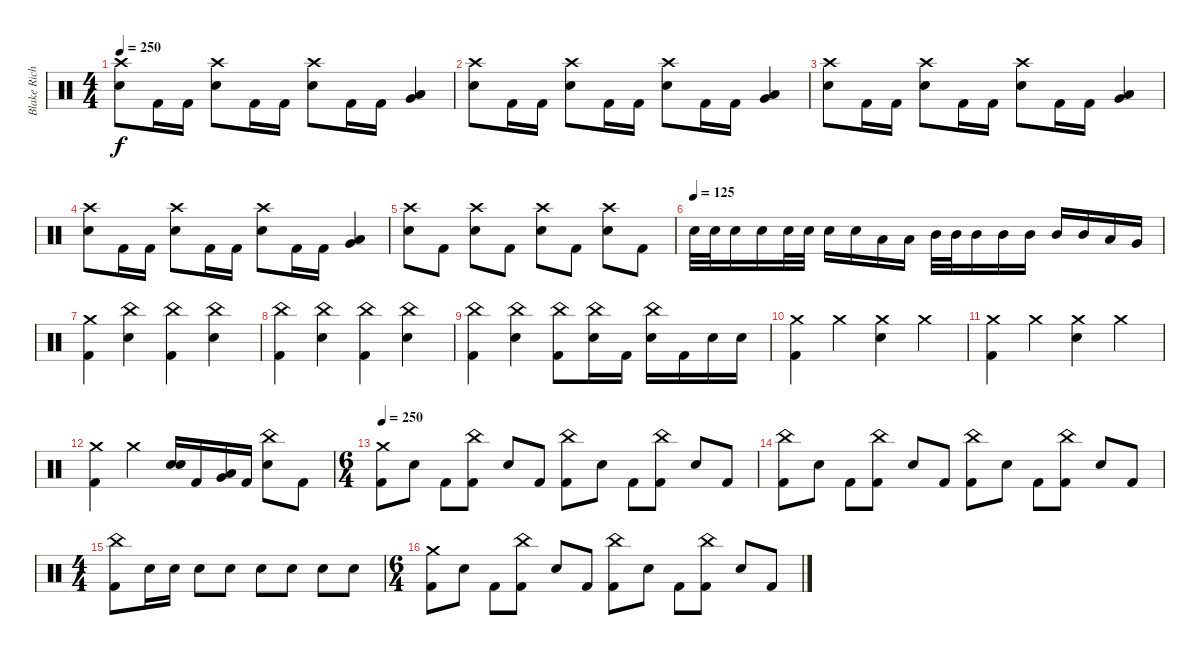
\track ("Blake Richardson - Drums" "Blake Rich") {instrument percussion}
\staff {score}
\articulation defaults
\ts (4 4)
\tempo 250
\clef neutral
\ks c
("Crash high (hit)" "Electric Snare (hit)").8{dy f} "Kick (hit) 2".16 "Kick (hit) 2".16 ("Crash high (hit)" "Electric Snare (hit)").8 "Kick (hit) 2".16 "Kick (hit) 2".16 ("Crash high (hit)" "Electric Snare (hit)").8 "Kick (hit) 2".16 "Kick (hit) 2".16 ("Low Tom (hit)" "Very Low Tom (hit)").4 |
("Crash high (hit)" "Electric Snare (hit)").8 "Kick (hit) 2".16 "Kick (hit) 2".16 ("Crash high (hit)" "Electric Snare (hit)").8 "Kick (hit) 2".16 "Kick (hit) 2".16 ("Crash high (hit)" "Electric Snare (hit)").8 "Kick (hit) 2".16 "Kick (hit) 2".16 ("Low Tom (hit)" "Very Low Tom (hit)").4 |
("Crash high (hit)" "Electric Snare (hit)").8 "Kick (hit) 2".16 "Kick (hit) 2".16 ("Crash high (hit)" "Electric Snare (hit)").8 "Kick (hit) 2".16 "Kick (hit) 2".16 ("Crash high (hit)" "Electric Snare (hit)").8 "Kick (hit) 2".16 "Kick (hit) 2".16 ("Low Tom (hit)" "Very Low Tom (hit)").4 |
("Crash high (hit)" "Electric Snare (hit)").8 "Kick (hit) 2".16 "Kick (hit) 2".16 ("Crash high (hit)" "Electric Snare (hit)").8 "Kick (hit) 2".16 "Kick (hit) 2".16 ("Crash high (hit)" "Electric Snare (hit)").8 "Kick (hit) 2".16 "Kick (hit) 2".16 ("Low Tom (hit)" "Very Low Tom (hit)").4 |
("Crash high (hit)" "Electric Snare (hit)").8 "Kick (hit) 2".8 ("Crash high (hit)" "Electric Snare (hit)").8 "Kick (hit) 2".8 ("Crash high (hit)" "Electric Snare (hit)").8 "Kick (hit) 2".8 ("Crash high (hit)" "Electric Snare (hit)").8 "Kick (hit) 2".8 |
\tempo (125)
"Electric Snare (hit)".32 "Electric Snare (hit)".32 "Electric Snare (hit)".16 "Electric Snare (hit)".16 "Electric Snare (hit)".32 "Electric Snare (hit)".32 "Electric Snare (hit)".16 "Electric Snare (hit)".16 "Low Tom (hit)".16 "Low Tom (hit)".16 "Mid Tom (hit)".32 "Mid Tom (hit)".32 "Mid Tom (hit)".16 "Mid Tom (hit)".16 "Mid Tom (hit)".16 "Mid Tom (hit)".16 "Mid Tom (hit)".16 "Low Tom (hit)".16 "Very Low Tom (hit)".16 |
("Crash medium (hit)" "Kick (hit) 2").4 ("China (hit)" "Electric Snare (hit)").4 ("China (hit)" "Kick (hit) 2").4 ("China (hit)" "Electric Snare (hit)").4 |
("China (hit)" "Kick (hit) 2").4 ("China (hit)" "Electric Snare (hit)").4 ("China (hit)" "Kick (hit) 2").4 ("China (hit)" "Electric Snare (hit)").4 |
("China (hit)" "Kick (hit) 2").4 ("China (hit)" "Electric Snare (hit)").4 ("China (hit)" "Kick (hit) 2").8 ("China (hit)" "Electric Snare (hit)").16 "Kick (hit) 2".16 ("China (hit)" "Electric Snare (hit)").16 "Kick (hit) 2".16 "Electric Snare (hit)".16 "Electric Snare (hit)".16 |
("Crash medium (hit)" "Kick (hit) 2").4 "Crash medium (hit)".4 ("Crash medium (hit)" "Electric Snare (hit)").4 "Crash medium (hit)".4 |
("Crash medium (hit)" "Kick (hit) 2").4 "Crash medium (hit)".4 ("Crash medium (hit)" "Electric Snare (hit)").4 "Crash medium (hit)".4 |
("Crash medium (hit)" "Kick (hit) 2").4 "Crash medium (hit)".4 ("Electric Snare (hit)" "Electric Snare (hit)").16 "Kick (hit) 2".16 ("Low Tom (hit)" "Very Low Tom (hit)").16 "Kick (hit) 2".16 ("China (hit)" "Electric Snare (hit)").8 "Kick (hit) 2".8 |
\ts (6 4)
\tempo 250
("Crash medium (hit)" "Kick (hit) 2").8 "Electric Snare (hit)".8 "Kick (hit) 2".8 ("China (hit)" "Kick (hit) 2").8 "Electric Snare (hit)".8 "Kick (hit) 2".8 ("China (hit)" "Kick (hit) 2").8 "Electric Snare (hit)".8 "Kick (hit) 2".8 ("China (hit)" "Kick (hit) 2").8 "Electric Snare (hit)".8 "Kick (hit) 2".8 |
("China (hit)" "Kick (hit) 2").8 "Electric Snare (hit)".8 "Kick (hit) 2".8 ("China (hit)" "Kick (hit) 2").8 "Electric Snare (hit)".8 "Kick (hit) 2".8 ("China (hit)" "Kick (hit) 2").8 "Electric Snare (hit)".8 "Kick (hit) 2".8 ("China (hit)" "Kick (hit) 2").8 "Electric Snare (hit)".8 "Kick (hit) 2".8 |
\ts (4 4)
("China (hit)" "Kick (hit) 2").8 "Electric Snare (hit)".16 "Electric Snare (hit)".16 "Electric Snare (hit)".8 "Electric Snare (hit)".8 "Electric Snare (hit)".8 "Electric Snare (hit)".8 "Electric Snare (hit)".8 "Electric Snare (hit)".8 |
\ts (6 4)
("Crash medium (hit)" "Kick (hit) 2").8 "Electric Snare (hit)".8 "Kick (hit) 2".8 ("China (hit)" "Kick (hit) 2").8 "Electric Snare (hit)".8 "Kick (hit) 2".8 ("China (hit)" "Kick (hit) 2").8 "Electric Snare (hit)".8 "Kick (hit) 2".8 ("China (hit)" "Kick (hit) 2").8 "Electric Snare (hit)".8 "Kick (hit) 2".8
